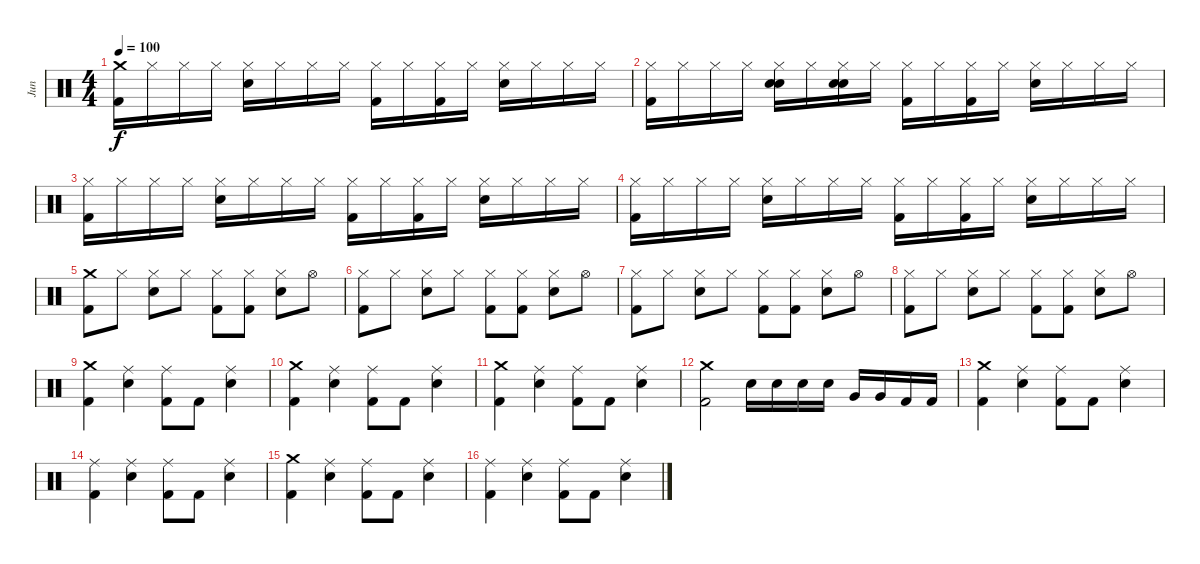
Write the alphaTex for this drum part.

\track ("Jun " "Jun ") {instrument percussion}
\staff {score}
\articulation defaults
\ts (4 4)
\tempo 100
\clef neutral
\ks c
("Crash medium (hit)" "Kick (hit) 2").16{dy f} "Hi-Hat (closed)".16 "Hi-Hat (closed)".16 "Hi-Hat (closed)".16 ("Hi-Hat (closed)" "Snare (hit) 2").16 "Hi-Hat (closed)".16 "Hi-Hat (closed)".16 "Hi-Hat (closed)".16 ("Hi-Hat (closed)" "Kick (hit) 2").16 "Hi-Hat (closed)".16 ("Hi-Hat (closed)" "Kick (hit) 2").16 "Hi-Hat (closed)".16 ("Hi-Hat (closed)" "Snare (hit) 2").16 "Hi-Hat (closed)".16 "Hi-Hat (closed)".16 "Hi-Hat (closed)".16 |
("Hi-Hat (closed)" "Kick (hit) 2").16 "Hi-Hat (closed)".16 "Hi-Hat (closed)".16 "Hi-Hat (closed)".16 ("Hi-Hat (closed)" "Snare (hit) 2" "Snare (hit) 2").16 "Hi-Hat (closed)".16 ("Hi-Hat (closed)" "Snare (hit) 2" "Snare (hit) 2").16 "Hi-Hat (closed)".16 ("Hi-Hat (closed)" "Kick (hit) 2").16 "Hi-Hat (closed)".16 ("Hi-Hat (closed)" "Kick (hit) 2").16 "Hi-Hat (closed)".16 ("Hi-Hat (closed)" "Snare (hit) 2").16 "Hi-Hat (closed)".16 "Hi-Hat (closed)".16 "Hi-Hat (closed)".16 |
("Hi-Hat (closed)" "Kick (hit) 2").16 "Hi-Hat (closed)".16 "Hi-Hat (closed)".16 "Hi-Hat (closed)".16 ("Hi-Hat (closed)" "Snare (hit) 2").16 "Hi-Hat (closed)".16 "Hi-Hat (closed)".16 "Hi-Hat (closed)".16 ("Hi-Hat (closed)" "Kick (hit) 2").16 "Hi-Hat (closed)".16 ("Hi-Hat (closed)" "Kick (hit) 2").16 "Hi-Hat (closed)".16 ("Hi-Hat (closed)" "Snare (hit) 2").16 "Hi-Hat (closed)".16 "Hi-Hat (closed)".16 "Hi-Hat (closed)".16 |
("Hi-Hat (closed)" "Kick (hit) 2").16 "Hi-Hat (closed)".16 "Hi-Hat (closed)".16 "Hi-Hat (closed)".16 ("Hi-Hat (closed)" "Snare (hit) 2").16 "Hi-Hat (closed)".16 "Hi-Hat (closed)".16 "Hi-Hat (closed)".16 ("Hi-Hat (closed)" "Kick (hit) 2").16 "Hi-Hat (closed)".16 ("Hi-Hat (closed)" "Kick (hit) 2").16 "Hi-Hat (closed)".16 ("Hi-Hat (closed)" "Snare (hit) 2").16 "Hi-Hat (closed)".16 "Hi-Hat (closed)".16 "Hi-Hat (closed)".16 |
("Crash medium (hit)" "Kick (hit) 2").8 "Hi-Hat (closed)".8 ("Hi-Hat (closed)" "Snare (hit) 2").8 "Hi-Hat (closed)".8 ("Hi-Hat (closed)" "Kick (hit) 2").8 ("Hi-Hat (closed)" "Kick (hit) 2").8 ("Hi-Hat (closed)" "Snare (hit) 2").8 "Hi-Hat (open)".8 |
("Hi-Hat (closed)" "Kick (hit) 2").8 "Hi-Hat (closed)".8 ("Hi-Hat (closed)" "Snare (hit) 2").8 "Hi-Hat (closed)".8 ("Hi-Hat (closed)" "Kick (hit) 2").8 ("Hi-Hat (closed)" "Kick (hit) 2").8 ("Hi-Hat (closed)" "Snare (hit) 2").8 "Hi-Hat (open)".8 |
("Hi-Hat (closed)" "Kick (hit) 2").8 "Hi-Hat (closed)".8 ("Hi-Hat (closed)" "Snare (hit) 2").8 "Hi-Hat (closed)".8 ("Hi-Hat (closed)" "Kick (hit) 2").8 ("Hi-Hat (closed)" "Kick (hit) 2").8 ("Hi-Hat (closed)" "Snare (hit) 2").8 "Hi-Hat (open)".8 |
("Hi-Hat (closed)" "Kick (hit) 2").8 "Hi-Hat (closed)".8 ("Hi-Hat (closed)" "Snare (hit) 2").8 "Hi-Hat (closed)".8 ("Hi-Hat (closed)" "Kick (hit) 2").8 ("Hi-Hat (closed)" "Kick (hit) 2").8 ("Hi-Hat (closed)" "Snare (hit) 2").8 "Hi-Hat (open)".8 |
("Crash medium (hit)" "Kick (hit) 2").4 ("Ride (middle)" "Snare (hit) 2").4 ("Ride (middle)" "Kick (hit) 2").8 "Kick (hit) 2".8 ("Ride (middle)" "Snare (hit) 2").4 |
("Crash medium (hit)" "Kick (hit) 2").4 ("Ride (middle)" "Snare (hit) 2").4 ("Ride (middle)" "Kick (hit) 2").8 "Kick (hit) 2".8 ("Ride (middle)" "Snare (hit) 2").4 |
("Crash medium (hit)" "Kick (hit) 2").4 ("Ride (middle)" "Snare (hit) 2").4 ("Ride (middle)" "Kick (hit) 2").8 "Kick (hit) 2".8 ("Ride (middle)" "Snare (hit) 2").4 |
("Crash medium (hit)" "Kick (hit) 2").2 "Snare (hit) 2".16 "Snare (hit) 2".16 "Snare (hit) 2".16 "Snare (hit) 2".16 "Very Low Tom (hit)".16 "Very Low Tom (hit)".16 "Kick (hit) 2".16 "Kick (hit) 2".16 |
("Crash medium (hit)" "Kick (hit) 2").4 ("Ride (middle)" "Snare (hit) 2").4 ("Ride (middle)" "Kick (hit) 2").8 "Kick (hit) 2".8 ("Ride (middle)" "Snare (hit) 2").4 |
("Ride (middle)" "Kick (hit) 2").4 ("Ride (middle)" "Snare (hit) 2").4 ("Ride (middle)" "Kick (hit) 2").8 "Kick (hit) 2".8 ("Ride (middle)" "Snare (hit) 2").4 |
("Crash medium (hit)" "Kick (hit) 2").4 ("Ride (middle)" "Snare (hit) 2").4 ("Ride (middle)" "Kick (hit) 2").8 "Kick (hit) 2".8 ("Ride (middle)" "Snare (hit) 2").4 |
("Ride (middle)" "Kick (hit) 2").4 ("Ride (middle)" "Snare (hit) 2").4 ("Ride (middle)" "Kick (hit) 2").8 "Kick (hit) 2".8 ("Ride (middle)" "Snare (hit) 2").4
